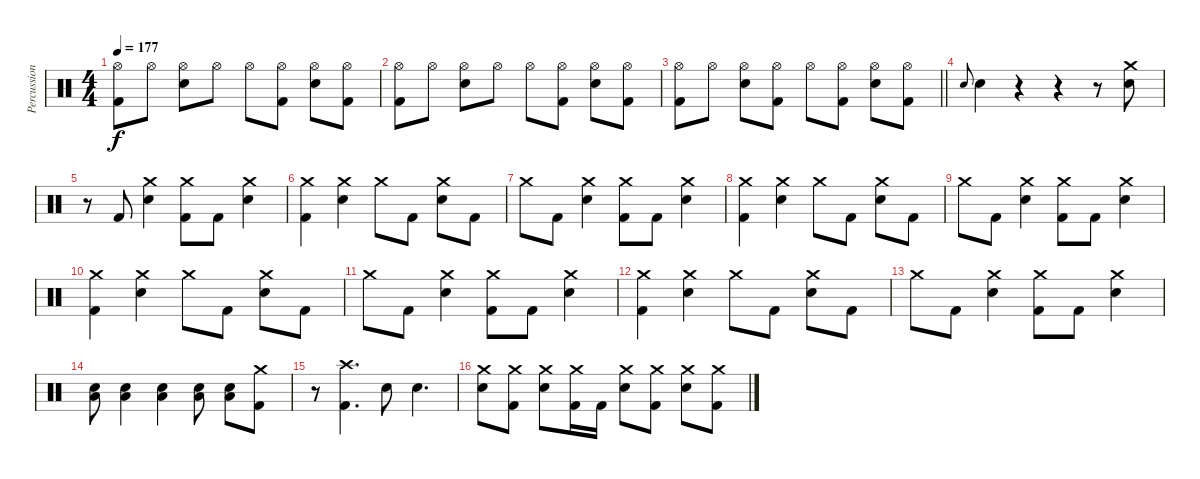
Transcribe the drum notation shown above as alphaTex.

\track ("Percussion" "Percussion") {instrument percussion}
\staff {score}
\articulation defaults
\ts (4 4)
\tempo 177
\clef neutral
\ks c
("Hi-Hat (open)" "Kick (hit) 2").8{dy f} "Hi-Hat (open)".8 ("Hi-Hat (open)" "Snare (hit) 2").8 "Hi-Hat (open)".8 "Hi-Hat (open)".8 ("Hi-Hat (open)" "Kick (hit) 2").8 ("Hi-Hat (open)" "Snare (hit) 2").8 ("Hi-Hat (open)" "Kick (hit) 2").8 |
("Hi-Hat (open)" "Kick (hit) 2").8 "Hi-Hat (open)".8 ("Hi-Hat (open)" "Snare (hit) 2").8 "Hi-Hat (open)".8 "Hi-Hat (open)".8 ("Hi-Hat (open)" "Kick (hit) 2").8 ("Hi-Hat (open)" "Snare (hit) 2").8 ("Hi-Hat (open)" "Kick (hit) 2").8 |
\barLineRight lightlight
("Hi-Hat (open)" "Kick (hit) 2").8 "Hi-Hat (open)".8 ("Hi-Hat (open)" "Snare (hit) 2").8 ("Hi-Hat (open)" "Kick (hit) 2").8 "Hi-Hat (open)".8 ("Hi-Hat (open)" "Kick (hit) 2").8 ("Hi-Hat (open)" "Snare (hit) 2").8 ("Hi-Hat (open)" "Kick (hit) 2").8 |
"Snare (hit) 2".8{gr onbeat} "Snare (hit) 2".4 r.4 r.4 r.8 ("Crash medium (hit)" "Snare (hit) 2").8 |
r.8 "Kick (hit) 2".8 ("Crash medium (hit)" "Snare (hit) 2").4 ("Crash medium (hit)" "Kick (hit) 2").8 "Kick (hit) 2".8 ("Crash medium (hit)" "Snare (hit) 2").4 |
("Crash medium (hit)" "Kick (hit) 2").4 ("Crash medium (hit)" "Snare (hit) 2").4 "Crash medium (hit)".8 "Kick (hit) 2".8 ("Crash medium (hit)" "Snare (hit) 2").8 "Kick (hit) 2".8 |
"Crash medium (hit)".8 "Kick (hit) 2".8 ("Crash medium (hit)" "Snare (hit) 2").4 ("Crash medium (hit)" "Kick (hit) 2").8 "Kick (hit) 2".8 ("Crash medium (hit)" "Snare (hit) 2").4 |
("Crash medium (hit)" "Kick (hit) 2").4 ("Crash medium (hit)" "Snare (hit) 2").4 "Crash medium (hit)".8 "Kick (hit) 2".8 ("Crash medium (hit)" "Snare (hit) 2").8 "Kick (hit) 2".8 |
"Crash medium (hit)".8 "Kick (hit) 2".8 ("Crash medium (hit)" "Snare (hit) 2").4 ("Crash medium (hit)" "Kick (hit) 2").8 "Kick (hit) 2".8 ("Crash medium (hit)" "Snare (hit) 2").4 |
("Crash medium (hit)" "Kick (hit) 2").4 ("Crash medium (hit)" "Snare (hit) 2").4 "Crash medium (hit)".8 "Kick (hit) 2".8 ("Crash medium (hit)" "Snare (hit) 2").8 "Kick (hit) 2".8 |
"Crash medium (hit)".8 "Kick (hit) 2".8 ("Crash medium (hit)" "Snare (hit) 2").4 ("Crash medium (hit)" "Kick (hit) 2").8 "Kick (hit) 2".8 ("Crash medium (hit)" "Snare (hit) 2").4 |
("Crash medium (hit)" "Kick (hit) 2").4 ("Crash medium (hit)" "Snare (hit) 2").4 "Crash medium (hit)".8 "Kick (hit) 2".8 ("Crash medium (hit)" "Snare (hit) 2").8 "Kick (hit) 2".8 |
"Crash medium (hit)".8 "Kick (hit) 2".8 ("Crash medium (hit)" "Snare (hit) 2").4 ("Crash medium (hit)" "Kick (hit) 2").8 "Kick (hit) 2".8 ("Crash medium (hit)" "Snare (hit) 2").4 |
("Snare (hit) 2" "Low Floor Tom (hit)").8 ("Snare (hit) 2" "Low Floor Tom (hit)").4 ("Snare (hit) 2" "Low Floor Tom (hit)").4 ("Snare (hit) 2" "Low Floor Tom (hit)").8 ("Snare (hit) 2" "Low Floor Tom (hit)").8 ("Crash medium (hit)" "Kick (hit) 2").8 |
r.8 ("Crash high (hit)" "Kick (hit) 2").4{d} "Snare (hit) 2".8 "Snare (hit) 2".4{d} |
("Crash medium (hit)" "Snare (hit) 2").8 ("Crash medium (hit)" "Kick (hit) 2").8 ("Crash medium (hit)" "Snare (hit) 2").8 ("Crash medium (hit)" "Kick (hit) 2").16 "Kick (hit) 2".16 ("Crash medium (hit)" "Snare (hit) 2").8 ("Crash medium (hit)" "Kick (hit) 2").8 ("Crash medium (hit)" "Snare (hit) 2").8 ("Crash medium (hit)" "Kick (hit) 2").8
